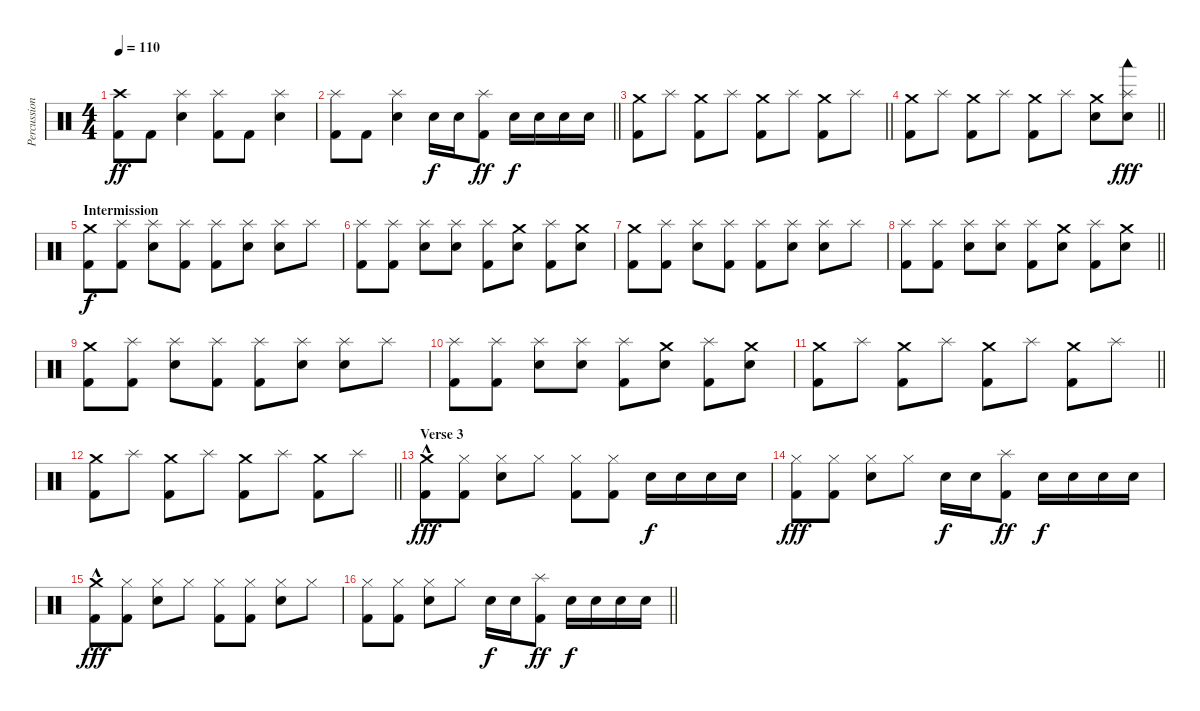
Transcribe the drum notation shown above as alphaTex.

\track ("Percussion" "Percussion") {instrument percussion}
\staff {score}
\articulation defaults
\ts (4 4)
\tempo 110
\clef neutral
\ks c
("Crash high (hit)" "Kick (hit) 2").8{dy ff} "Kick (hit) 2".8 ("Splash (hit)" "Snare (hit) 2").4 ("Splash (hit)" "Kick (hit) 2").8 "Kick (hit) 2".8 ("Splash (hit)" "Snare (hit) 2").4 |
\barLineRight lightlight
("Splash (hit)" "Kick (hit) 2").8 "Kick (hit) 2".8 ("Splash (hit)" "Snare (hit) 2").4 "Snare (hit) 2".16{dy f} "Snare (hit) 2".16 ("Splash (hit)" "Kick (hit) 2").8{dy ff} "Snare (hit) 2".16{dy f} "Snare (hit) 2".16 "Snare (hit) 2".16 "Snare (hit) 2".16 |
\barLineRight lightlight
("Crash medium (hit)" "Kick (hit) 2").8 "Splash (hit)".8 ("Crash medium (hit)" "Kick (hit) 2").8 "Splash (hit)".8 ("Crash medium (hit)" "Kick (hit) 2").8 "Splash (hit)".8 ("Crash medium (hit)" "Kick (hit) 2").8 "Splash (hit)".8 |
\barLineRight lightlight
("Crash medium (hit)" "Kick (hit) 2").8 "Splash (hit)".8 ("Crash medium (hit)" "Kick (hit) 2").8 "Splash (hit)".8 ("Crash medium (hit)" "Kick (hit) 2").8 "Splash (hit)".8 ("Crash medium (hit)" "Snare (hit) 2").8 ("Splash (hit)" "Snare (hit) 2" "Woodblock low (hit)").8{dy fff} |
\section ("" "Intermission")
("Crash medium (hit)" "Kick (hit) 2").8{dy f} ("Splash (hit)" "Kick (hit) 2").8 ("Splash (hit)" "Snare (hit) 2").8 ("Splash (hit)" "Kick (hit) 2").8 ("Splash (hit)" "Kick (hit) 2").8 ("Splash (hit)" "Snare (hit) 2").8 ("Splash (hit)" "Snare (hit) 2").8 "Splash (hit)".8 |
("Splash (hit)" "Kick (hit) 2").8 ("Splash (hit)" "Kick (hit) 2").8 ("Splash (hit)" "Snare (hit) 2").8 ("Splash (hit)" "Snare (hit) 2").8 ("Splash (hit)" "Kick (hit) 2").8 ("Crash medium (hit)" "Snare (hit) 2").8 ("Splash (hit)" "Kick (hit) 2").8 ("Crash medium (hit)" "Snare (hit) 2").8 |
("Crash medium (hit)" "Kick (hit) 2").8 ("Splash (hit)" "Kick (hit) 2").8 ("Splash (hit)" "Snare (hit) 2").8 ("Splash (hit)" "Kick (hit) 2").8 ("Splash (hit)" "Kick (hit) 2").8 ("Splash (hit)" "Snare (hit) 2").8 ("Splash (hit)" "Snare (hit) 2").8 "Splash (hit)".8 |
\barLineRight lightlight
("Splash (hit)" "Kick (hit) 2").8 ("Splash (hit)" "Kick (hit) 2").8 ("Splash (hit)" "Snare (hit) 2").8 ("Splash (hit)" "Snare (hit) 2").8 ("Splash (hit)" "Kick (hit) 2").8 ("Crash medium (hit)" "Snare (hit) 2").8 ("Splash (hit)" "Kick (hit) 2").8 ("Crash medium (hit)" "Snare (hit) 2").8 |
("Crash medium (hit)" "Kick (hit) 2").8 ("Splash (hit)" "Kick (hit) 2").8 ("Splash (hit)" "Snare (hit) 2").8 ("Splash (hit)" "Kick (hit) 2").8 ("Splash (hit)" "Kick (hit) 2").8 ("Splash (hit)" "Snare (hit) 2").8 ("Splash (hit)" "Snare (hit) 2").8 "Splash (hit)".8 |
("Splash (hit)" "Kick (hit) 2").8 ("Splash (hit)" "Kick (hit) 2").8 ("Splash (hit)" "Snare (hit) 2").8 ("Splash (hit)" "Snare (hit) 2").8 ("Splash (hit)" "Kick (hit) 2").8 ("Crash medium (hit)" "Snare (hit) 2").8 ("Splash (hit)" "Kick (hit) 2").8 ("Crash medium (hit)" "Snare (hit) 2").8 |
\barLineRight lightlight
("Crash medium (hit)" "Kick (hit) 2").8 "Splash (hit)".8 ("Crash medium (hit)" "Kick (hit) 2").8 "Splash (hit)".8 ("Crash medium (hit)" "Kick (hit) 2").8 "Splash (hit)".8 ("Crash medium (hit)" "Kick (hit) 2").8 "Splash (hit)".8 |
\barLineRight lightlight
("Crash medium (hit)" "Kick (hit) 2").8 "Splash (hit)".8 ("Crash medium (hit)" "Kick (hit) 2").8 "Splash (hit)".8 ("Crash medium (hit)" "Kick (hit) 2").8 "Splash (hit)".8 ("Crash medium (hit)" "Kick (hit) 2").8 "Splash (hit)".8 |
\section ("" "Verse 3")
("Crash medium (hit)"{hac} "Kick (hit) 2").8{dy fff} ("Hi-Hat (closed)" "Kick (hit) 2").8 ("Hi-Hat (closed)" "Snare (hit) 2").8 "Hi-Hat (closed)".8 ("Hi-Hat (closed)" "Kick (hit) 2").8 ("Hi-Hat (closed)" "Kick (hit) 2").8 "Snare (hit) 2".16{dy f} "Snare (hit) 2".16 "Snare (hit) 2".16 "Snare (hit) 2".16 |
("Hi-Hat (closed)" "Kick (hit) 2").8{dy fff} ("Hi-Hat (closed)" "Kick (hit) 2").8 ("Hi-Hat (closed)" "Snare (hit) 2").8 "Hi-Hat (closed)".8 "Snare (hit) 2".16{dy f} "Snare (hit) 2".16 ("Splash (hit)" "Kick (hit) 2").8{dy ff} "Snare (hit) 2".16{dy f} "Snare (hit) 2".16 "Snare (hit) 2".16 "Snare (hit) 2".16 |
("Crash medium (hit)"{hac} "Kick (hit) 2").8{dy fff} ("Hi-Hat (closed)" "Kick (hit) 2").8 ("Hi-Hat (closed)" "Snare (hit) 2").8 "Hi-Hat (closed)".8 ("Hi-Hat (closed)" "Kick (hit) 2").8 ("Hi-Hat (closed)" "Kick (hit) 2").8 ("Hi-Hat (closed)" "Snare (hit) 2").8 "Hi-Hat (closed)".8 |
\barLineRight lightlight
("Hi-Hat (closed)" "Kick (hit) 2").8 ("Hi-Hat (closed)" "Kick (hit) 2").8 ("Hi-Hat (closed)" "Snare (hit) 2").8 "Hi-Hat (closed)".8 "Snare (hit) 2".16{dy f} "Snare (hit) 2".16 ("Splash (hit)" "Kick (hit) 2").8{dy ff} "Snare (hit) 2".16{dy f} "Snare (hit) 2".16 "Snare (hit) 2".16 "Snare (hit) 2".16
